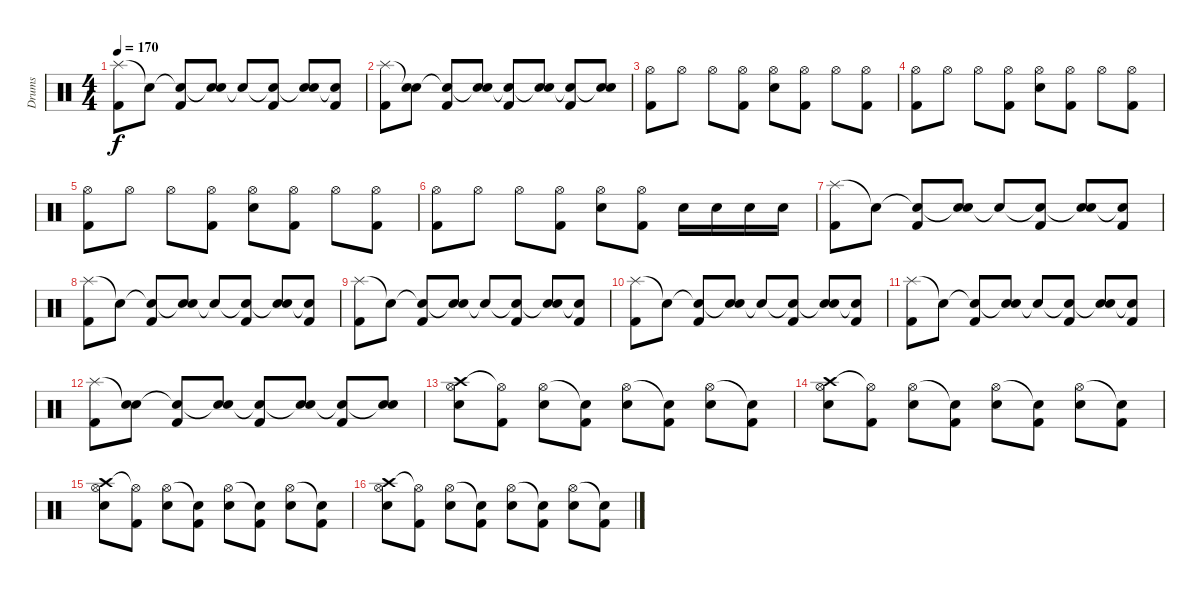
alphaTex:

\track ("Drums" "Drums") {instrument percussion}
\staff {score}
\articulation defaults
\ts (4 4)
\tempo 170
\clef neutral
\ks c
("Splash (hit)" "Kick (hit) 2").8{dy f} "Snare (hit)"{t}.8 ("Snare (hit)"{t} "Kick (hit) 2").8 ("Snare (hit)"{t} "Electric Snare (hit)").8 "Snare (hit)"{t}.8 ("Snare (hit)"{t} "Kick (hit) 2").8 ("Snare (hit)"{t} "Electric Snare (hit)").8 ("Snare (hit)"{t} "Kick (hit) 2").8 |
("Splash (hit)" "Kick (hit) 2").8 ("Snare (hit)"{t} "Electric Snare (hit)").8 ("Snare (hit)"{t} "Kick (hit) 2").8 ("Snare (hit)"{t} "Electric Snare (hit)").8 ("Snare (hit)"{t} "Kick (hit) 2").8 ("Snare (hit)"{t} "Electric Snare (hit)").8 ("Snare (hit)"{t} "Kick (hit) 2").8 ("Snare (hit)"{t} "Electric Snare (hit)").8 |
("Hi-Hat (open)" "Kick (hit) 2").8 "Hi-Hat (open)".8 "Hi-Hat (open)".8 ("Hi-Hat (open)" "Kick (hit) 2").8 ("Hi-Hat (open)" "Electric Snare (hit)").8 ("Hi-Hat (open)" "Kick (hit) 2").8 "Hi-Hat (open)".8 ("Hi-Hat (open)" "Kick (hit) 2").8 |
("Hi-Hat (open)" "Kick (hit) 2").8 "Hi-Hat (open)".8 "Hi-Hat (open)".8 ("Hi-Hat (open)" "Kick (hit) 2").8 ("Hi-Hat (open)" "Electric Snare (hit)").8 ("Hi-Hat (open)" "Kick (hit) 2").8 "Hi-Hat (open)".8 ("Hi-Hat (open)" "Kick (hit) 2").8 |
("Hi-Hat (open)" "Kick (hit) 2").8 "Hi-Hat (open)".8 "Hi-Hat (open)".8 ("Hi-Hat (open)" "Kick (hit) 2").8 ("Hi-Hat (open)" "Electric Snare (hit)").8 ("Hi-Hat (open)" "Kick (hit) 2").8 "Hi-Hat (open)".8 ("Hi-Hat (open)" "Kick (hit) 2").8 |
("Hi-Hat (open)" "Kick (hit) 2").8 "Hi-Hat (open)".8 "Hi-Hat (open)".8 ("Hi-Hat (open)" "Kick (hit) 2").8 ("Hi-Hat (open)" "Electric Snare (hit)").8 ("Hi-Hat (open)" "Kick (hit) 2").8 "Electric Snare (hit)".16 "Electric Snare (hit)".16 "Electric Snare (hit)".16 "Electric Snare (hit)".16 |
("Splash (hit)" "Kick (hit) 2").8 "Snare (hit)"{t}.8 ("Snare (hit)"{t} "Kick (hit) 2").8 ("Snare (hit)"{t} "Electric Snare (hit)").8 "Snare (hit)"{t}.8 ("Snare (hit)"{t} "Kick (hit) 2").8 ("Snare (hit)"{t} "Electric Snare (hit)").8 ("Snare (hit)"{t} "Kick (hit) 2").8 |
("Splash (hit)" "Kick (hit) 2").8 "Snare (hit)"{t}.8 ("Snare (hit)"{t} "Kick (hit) 2").8 ("Snare (hit)"{t} "Electric Snare (hit)").8 "Snare (hit)"{t}.8 ("Snare (hit)"{t} "Kick (hit) 2").8 ("Snare (hit)"{t} "Electric Snare (hit)").8 ("Snare (hit)"{t} "Kick (hit) 2").8 |
("Splash (hit)" "Kick (hit) 2").8 "Snare (hit)"{t}.8 ("Snare (hit)"{t} "Kick (hit) 2").8 ("Snare (hit)"{t} "Electric Snare (hit)").8 "Snare (hit)"{t}.8 ("Snare (hit)"{t} "Kick (hit) 2").8 ("Snare (hit)"{t} "Electric Snare (hit)").8 ("Snare (hit)"{t} "Kick (hit) 2").8 |
("Splash (hit)" "Kick (hit) 2").8 "Snare (hit)"{t}.8 ("Snare (hit)"{t} "Kick (hit) 2").8 ("Snare (hit)"{t} "Electric Snare (hit)").8 "Snare (hit)"{t}.8 ("Snare (hit)"{t} "Kick (hit) 2").8 ("Snare (hit)"{t} "Electric Snare (hit)").8 ("Snare (hit)"{t} "Kick (hit) 2").8 |
("Splash (hit)" "Kick (hit) 2").8 "Snare (hit)"{t}.8 ("Snare (hit)"{t} "Kick (hit) 2").8 ("Snare (hit)"{t} "Electric Snare (hit)").8 "Snare (hit)"{t}.8 ("Snare (hit)"{t} "Kick (hit) 2").8 ("Snare (hit)"{t} "Electric Snare (hit)").8 ("Snare (hit)"{t} "Kick (hit) 2").8 |
("Splash (hit)" "Kick (hit) 2").8 ("Snare (hit)"{t} "Electric Snare (hit)").8 ("Snare (hit)"{t} "Kick (hit) 2").8 ("Snare (hit)"{t} "Electric Snare (hit)").8 ("Snare (hit)"{t} "Kick (hit) 2").8 ("Snare (hit)"{t} "Electric Snare (hit)").8 ("Snare (hit)"{t} "Kick (hit) 2").8 ("Snare (hit)"{t} "Electric Snare (hit)").8 |
("Crash high (hit)" "Hi-Hat (open)" "Electric Snare (hit)").8 ("Hi-Hat (open)"{t} "Kick (hit) 2").8 ("Hi-Hat (open)" "Electric Snare (hit)").8 ("Snare (hit)"{t} "Kick (hit) 2").8 ("Hi-Hat (open)" "Electric Snare (hit)").8 ("Snare (hit)"{t} "Kick (hit) 2").8 ("Hi-Hat (open)" "Electric Snare (hit)").8 ("Snare (hit)"{t} "Kick (hit) 2").8 |
("Crash high (hit)" "Hi-Hat (open)" "Electric Snare (hit)").8 ("Hi-Hat (open)"{t} "Kick (hit) 2").8 ("Hi-Hat (open)" "Electric Snare (hit)").8 ("Snare (hit)"{t} "Kick (hit) 2").8 ("Hi-Hat (open)" "Electric Snare (hit)").8 ("Snare (hit)"{t} "Kick (hit) 2").8 ("Hi-Hat (open)" "Electric Snare (hit)").8 ("Snare (hit)"{t} "Kick (hit) 2").8 |
("Crash high (hit)" "Hi-Hat (open)" "Electric Snare (hit)").8 ("Hi-Hat (open)"{t} "Kick (hit) 2").8 ("Hi-Hat (open)" "Electric Snare (hit)").8 ("Snare (hit)"{t} "Kick (hit) 2").8 ("Hi-Hat (open)" "Electric Snare (hit)").8 ("Snare (hit)"{t} "Kick (hit) 2").8 ("Hi-Hat (open)" "Electric Snare (hit)").8 ("Snare (hit)"{t} "Kick (hit) 2").8 |
("Crash high (hit)" "Hi-Hat (open)" "Electric Snare (hit)").8 ("Hi-Hat (open)"{t} "Kick (hit) 2").8 ("Hi-Hat (open)" "Electric Snare (hit)").8 ("Snare (hit)"{t} "Kick (hit) 2").8 ("Hi-Hat (open)" "Electric Snare (hit)").8 ("Snare (hit)"{t} "Kick (hit) 2").8 ("Hi-Hat (open)" "Electric Snare (hit)").8 ("Snare (hit)"{t} "Kick (hit) 2").8
